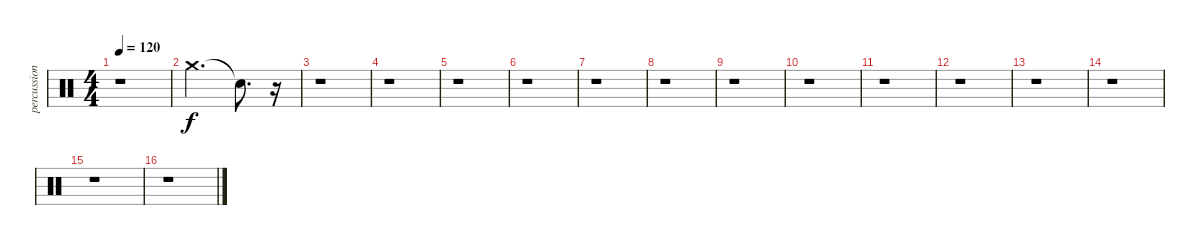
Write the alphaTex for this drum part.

\track ("percussion" "percussion") {instrument percussion}
\staff {score}
\articulation defaults
\ts (4 4)
\tempo 120
\clef neutral
\ks c
r.1{dy f} |
"Crash medium (hit)".2{d} "Snare (hit)"{t}.8{d} r.16 |
r.1 |
r.1 |
r.1 |
r.1 |
r.1 |
r.1 |
r.1 |
r.1 |
r.1 |
r.1 |
r.1 |
r.1 |
r.1 |
r.1
